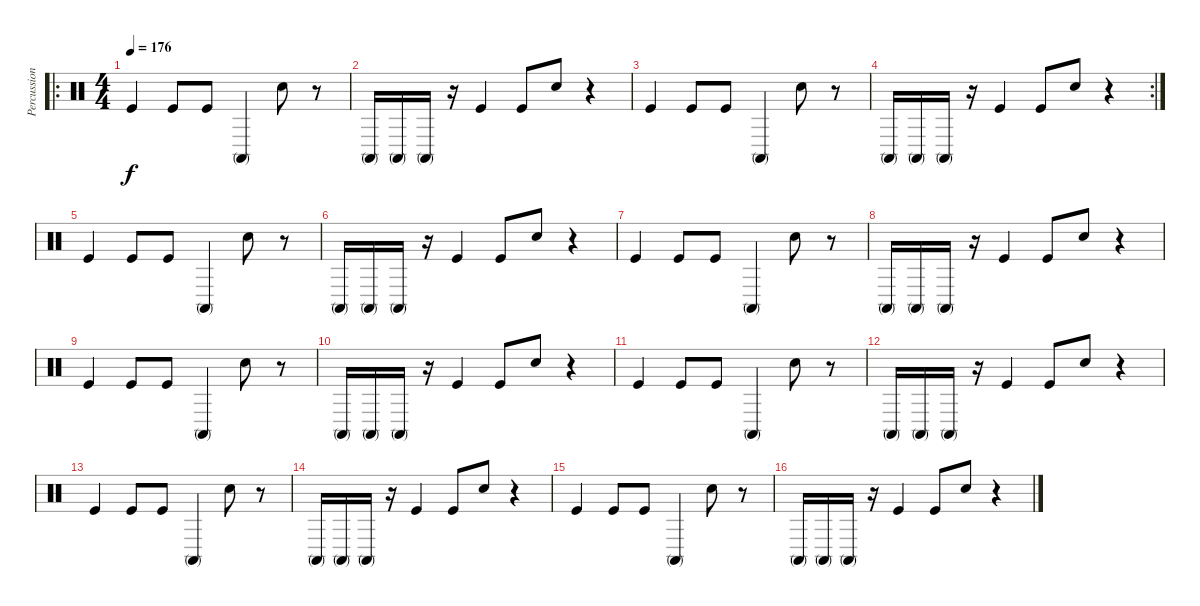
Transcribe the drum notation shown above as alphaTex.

\track ("Percussions" "Percussion") {instrument percussion}
\staff {score}
\articulation defaults
\ro
\ts (4 4)
\tempo 176
\clef neutral
\ks c "Kick (hit)".4{dy f} "Kick (hit)".8 "Kick (hit)".8 "Conga high (mute)".4 "Snare (hit) 2".8
r.8 |
"Conga high (mute)".16 "Conga high (mute)".16 "Conga high (mute)".16 r.16 "Kick (hit)".4 "Kick (hit)".8 "Snare (hit) 2".8 r.4 |
"Kick (hit)".4 "Kick (hit)".8 "Kick (hit)".8 "Conga high (mute)".4 "Snare (hit) 2".8 r.8 |
\rc 2 "Conga high (mute)".16 "Conga high (mute)".16 "Conga high (mute)".16
r.16 "Kick (hit)".4 "Kick (hit)".8 "Snare (hit) 2".8 r.4 |
"Kick (hit)".4 "Kick (hit)".8 "Kick (hit)".8 "Conga high (mute)".4 "Snare (hit) 2".8 r.8 |
"Conga high (mute)".16 "Conga high (mute)".16 "Conga high (mute)".16 r.16 "Kick (hit)".4 "Kick (hit)".8 "Snare (hit) 2".8 r.4 |
"Kick (hit)".4 "Kick (hit)".8 "Kick (hit)".8 "Conga high (mute)".4 "Snare (hit) 2".8 r.8 |
"Conga high (mute)".16 "Conga high (mute)".16 "Conga high (mute)".16 r.16 "Kick (hit)".4 "Kick (hit)".8 "Snare (hit) 2".8 r.4 |
"Kick (hit)".4 "Kick (hit)".8 "Kick (hit)".8 "Conga high (mute)".4 "Snare (hit) 2".8 r.8 |
"Conga high (mute)".16 "Conga high (mute)".16 "Conga high (mute)".16 r.16 "Kick (hit)".4 "Kick (hit)".8 "Snare (hit) 2".8 r.4 |
"Kick (hit)".4 "Kick (hit)".8 "Kick (hit)".8 "Conga high (mute)".4 "Snare (hit) 2".8 r.8 |
"Conga high (mute)".16 "Conga high (mute)".16 "Conga high (mute)".16 r.16 "Kick (hit)".4 "Kick (hit)".8 "Snare (hit) 2".8 r.4 |
"Kick (hit)".4 "Kick (hit)".8 "Kick (hit)".8 "Conga high (mute)".4 "Snare (hit) 2".8 r.8 |
"Conga high (mute)".16 "Conga high (mute)".16 "Conga high (mute)".16 r.16 "Kick (hit)".4 "Kick (hit)".8 "Snare (hit) 2".8 r.4 |
"Kick (hit)".4 "Kick (hit)".8 "Kick (hit)".8 "Conga high (mute)".4 "Snare (hit) 2".8 r.8 |
"Conga high (mute)".16 "Conga high (mute)".16 "Conga high (mute)".16 r.16 "Kick (hit)".4 "Kick (hit)".8 "Snare (hit) 2".8 r.4
